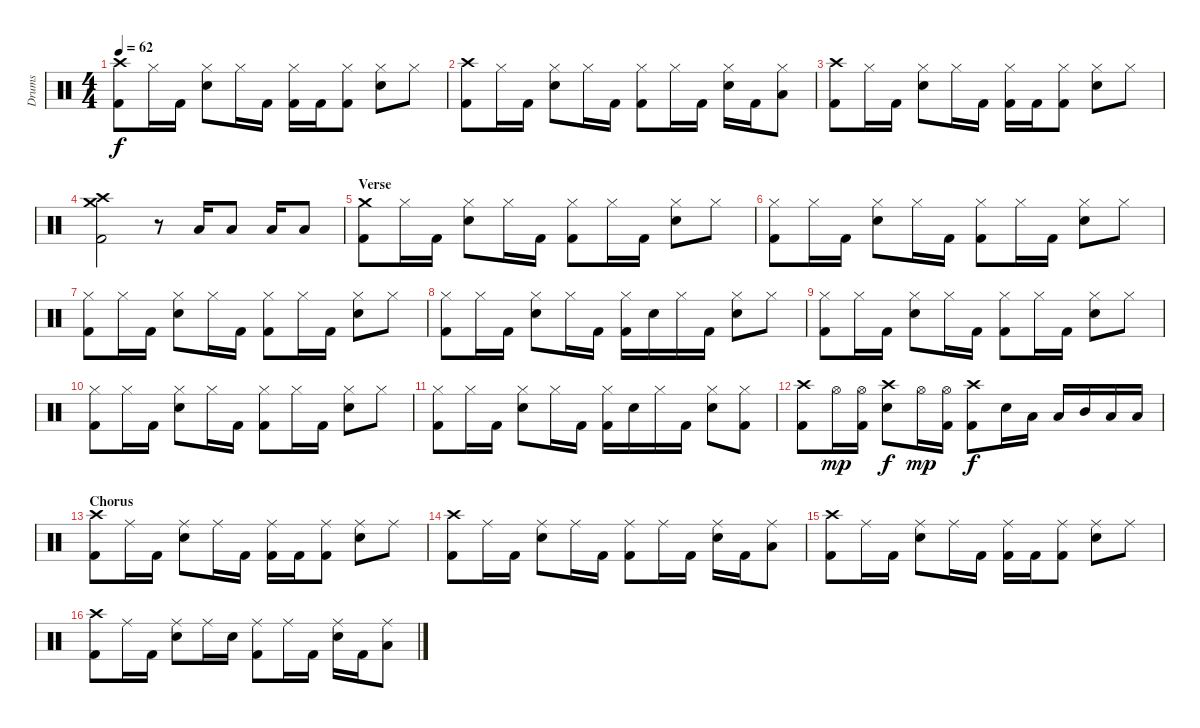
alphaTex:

\track ("Drums" "Drums") {instrument percussion}
\staff {score}
\articulation defaults
\ts (4 4)
\tempo 62
\clef neutral
\ks c
("Crash high (hit)" "Kick (hit) 2").8{dy f} "Hi-Hat (closed)".16 "Kick (hit) 2".16 ("Hi-Hat (closed)" "Snare (hit) 2").8 "Hi-Hat (closed)".16 "Kick (hit) 2".16 ("Hi-Hat (closed)" "Kick (hit) 2").16 "Kick (hit) 2".16 ("Hi-Hat (closed)" "Kick (hit) 2").8 ("Hi-Hat (closed)" "Snare (hit) 2").8 "Hi-Hat (closed)".8 |
("Crash high (hit)" "Kick (hit) 2").8 "Hi-Hat (closed)".16 "Kick (hit) 2".16 ("Hi-Hat (closed)" "Snare (hit) 2").8 "Hi-Hat (closed)".16 "Kick (hit) 2".16 ("Hi-Hat (closed)" "Kick (hit) 2").8 "Hi-Hat (closed)".16 "Kick (hit) 2".16 ("Hi-Hat (closed)" "Snare (hit) 2").16 "Kick (hit) 2".16 ("Hi-Hat (closed)" "Low Floor Tom (hit)").8 |
("Crash high (hit)" "Kick (hit) 2").8 "Hi-Hat (closed)".16 "Kick (hit) 2".16 ("Hi-Hat (closed)" "Snare (hit) 2").8 "Hi-Hat (closed)".16 "Kick (hit) 2".16 ("Hi-Hat (closed)" "Kick (hit) 2").16 "Kick (hit) 2".16 ("Hi-Hat (closed)" "Kick (hit) 2").8 ("Hi-Hat (closed)" "Snare (hit) 2").8 "Hi-Hat (closed)".8 |
("Crash medium (hit)" "Crash high (hit)" "Kick (hit) 2").2 r.8 "Low Tom (hit)".16 "Low Tom (hit)".8 "Low Floor Tom (hit)".16 "Low Floor Tom (hit)".8 |
\section ("" "Verse")
("Crash medium (hit)" "Kick (hit) 2").8 "Hi-Hat (closed)".16 "Kick (hit) 2".16 ("Hi-Hat (closed)" "Snare (hit) 2").8 "Hi-Hat (closed)".16 "Kick (hit) 2".16 ("Hi-Hat (closed)" "Kick (hit) 2").8 "Hi-Hat (closed)".16 "Kick (hit) 2".16 ("Hi-Hat (closed)" "Snare (hit) 2").8 "Hi-Hat (closed)".8 |
("Hi-Hat (closed)" "Kick (hit) 2").8 "Hi-Hat (closed)".16 "Kick (hit) 2".16 ("Hi-Hat (closed)" "Snare (hit) 2").8 "Hi-Hat (closed)".16 "Kick (hit) 2".16 ("Hi-Hat (closed)" "Kick (hit) 2").8 "Hi-Hat (closed)".16 "Kick (hit) 2".16 ("Hi-Hat (closed)" "Snare (hit) 2").8 "Hi-Hat (closed)".8 |
("Hi-Hat (closed)" "Kick (hit) 2").8 "Hi-Hat (closed)".16 "Kick (hit) 2".16 ("Hi-Hat (closed)" "Snare (hit) 2").8 "Hi-Hat (closed)".16 "Kick (hit) 2".16 ("Hi-Hat (closed)" "Kick (hit) 2").8 "Hi-Hat (closed)".16 "Kick (hit) 2".16 ("Hi-Hat (closed)" "Snare (hit) 2").8 "Hi-Hat (closed)".8 |
("Hi-Hat (closed)" "Kick (hit) 2").8 "Hi-Hat (closed)".16 "Kick (hit) 2".16 ("Hi-Hat (closed)" "Snare (hit) 2").8 "Hi-Hat (closed)".16 "Kick (hit) 2".16 ("Hi-Hat (closed)" "Kick (hit) 2").16 "Snare (hit) 2".16 "Hi-Hat (closed)".16 "Kick (hit) 2".16 ("Hi-Hat (closed)" "Snare (hit) 2").8 "Hi-Hat (closed)".8 |
("Hi-Hat (closed)" "Kick (hit) 2").8 "Hi-Hat (closed)".16 "Kick (hit) 2".16 ("Hi-Hat (closed)" "Snare (hit) 2").8 "Hi-Hat (closed)".16 "Kick (hit) 2".16 ("Hi-Hat (closed)" "Kick (hit) 2").8 "Hi-Hat (closed)".16 "Kick (hit) 2".16 ("Hi-Hat (closed)" "Snare (hit) 2").8 "Hi-Hat (closed)".8 |
("Hi-Hat (closed)" "Kick (hit) 2").8 "Hi-Hat (closed)".16 "Kick (hit) 2".16 ("Hi-Hat (closed)" "Snare (hit) 2").8 "Hi-Hat (closed)".16 "Kick (hit) 2".16 ("Hi-Hat (closed)" "Kick (hit) 2").8 "Hi-Hat (closed)".16 "Kick (hit) 2".16 ("Hi-Hat (closed)" "Snare (hit) 2").8 "Hi-Hat (closed)".8 |
("Hi-Hat (closed)" "Kick (hit) 2").8 "Hi-Hat (closed)".16 "Kick (hit) 2".16 ("Hi-Hat (closed)" "Snare (hit) 2").8 "Hi-Hat (closed)".16 "Kick (hit) 2".16 ("Hi-Hat (closed)" "Kick (hit) 2").16 "Snare (hit) 2".16 "Hi-Hat (closed)".16 "Kick (hit) 2".16 ("Hi-Hat (closed)" "Snare (hit) 2").8 ("Hi-Hat (closed)" "Kick (hit) 2").8 |
("Crash high (hit)" "Kick (hit) 2").8 "Hi-Hat (open)".16{dy mp} ("Hi-Hat (open)" "Kick (hit) 2").16 ("Crash high (hit)" "Snare (hit) 2").8{dy f} "Hi-Hat (open)".16{dy mp} ("Hi-Hat (open)" "Kick (hit) 2").16 ("Crash high (hit)" "Kick (hit) 2").8{dy f} "Snare (hit) 2".16 "Low Tom (hit)".16 "Low Floor Tom (hit)".16 "Mid Tom (hit)".16 "Low Tom (hit)".16 "Low Floor Tom (hit)".16 |
\section ("" "Chorus")
("Crash high (hit)" "Kick (hit) 2").8 "Ride (middle)".16 "Kick (hit) 2".16 ("Ride (middle)" "Snare (hit) 2").8 "Ride (middle)".16 "Kick (hit) 2".16 ("Ride (middle)" "Kick (hit) 2").16 "Kick (hit) 2".16 ("Ride (middle)" "Kick (hit) 2").8 ("Ride (middle)" "Snare (hit) 2").8 "Ride (middle)".8 |
("Crash high (hit)" "Kick (hit) 2").8 "Ride (middle)".16 "Kick (hit) 2".16 ("Ride (middle)" "Snare (hit) 2").8 "Ride (middle)".16 "Kick (hit) 2".16 ("Ride (middle)" "Kick (hit) 2").8 "Ride (middle)".16 "Kick (hit) 2".16 ("Ride (middle)" "Snare (hit) 2").16 "Kick (hit) 2".16 ("Ride (middle)" "Low Floor Tom (hit)").8 |
("Crash high (hit)" "Kick (hit) 2").8 "Ride (middle)".16 "Kick (hit) 2".16 ("Ride (middle)" "Snare (hit) 2").8 "Ride (middle)".16 "Kick (hit) 2".16 ("Ride (middle)" "Kick (hit) 2").16 "Kick (hit) 2".16 ("Ride (middle)" "Kick (hit) 2").8 ("Ride (middle)" "Snare (hit) 2").8 "Ride (middle)".8 |
("Crash high (hit)" "Kick (hit) 2").8 "Ride (middle)".16 "Kick (hit) 2".16 ("Ride (middle)" "Snare (hit) 2").8 "Ride (middle)".16 "Snare (hit) 2".16 ("Ride (middle)" "Kick (hit) 2").8 "Ride (middle)".16 "Kick (hit) 2".16 ("Ride (middle)" "Snare (hit) 2").16 "Kick (hit) 2".16 ("Ride (middle)" "Low Floor Tom (hit)").8
